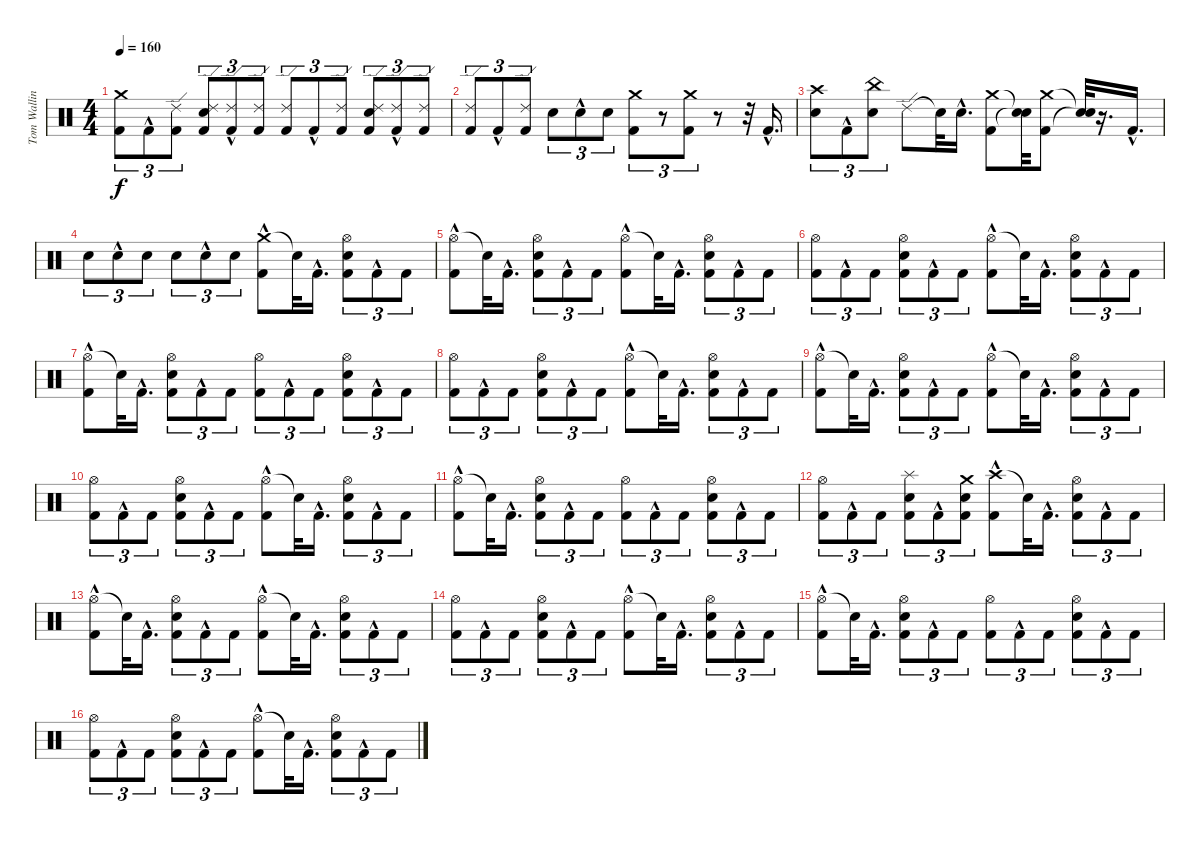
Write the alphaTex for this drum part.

\track ("Tom Walling (Drums)" "Tom Wallin") {instrument percussion}
\staff {score}
\articulation defaults
\ts (4 4)
\tempo 160
\clef neutral
\ks c
("Crash medium (hit)" "Kick (hit) 2").8{tu (3 2) dy f} "Kick (hit) 2"{hac}.8{tu (3 2)} ("Ride (edge) 2" "Kick (hit) 2").8{tu (3 2)} ("Ride (edge) 2" "Electric Snare (hit)" "Kick (hit) 2").8{tu (3 2)} ("Ride (edge) 2"{hac} "Kick (hit) 2"{hac}).8{tu (3 2)} ("Ride (edge) 2" "Kick (hit) 2").8{tu (3 2)} ("Ride (edge) 2" "Kick (hit) 2").8{tu (3 2)} "Kick (hit) 2"{hac}.8{tu (3 2)} ("Ride (edge) 2" "Kick (hit) 2").8{tu (3 2)} ("Ride (edge) 2" "Electric Snare (hit)" "Kick (hit) 2").8{tu (3 2)} ("Ride (edge) 2"{hac} "Kick (hit) 2"{hac}).8{tu (3 2)} ("Ride (edge) 2" "Kick (hit) 2").8{tu (3 2)} |
("Ride (edge) 2" "Kick (hit) 2").8{tu (3 2)} "Kick (hit) 2"{hac}.8{tu (3 2)} ("Ride (edge) 2" "Kick (hit) 2").8{tu (3 2)} "Electric Snare (hit)".8{tu (3 2)} "Electric Snare (hit)"{hac}.8{tu (3 2)} "Electric Snare (hit)".8{tu (3 2)} ("Crash medium (hit)" "Kick (hit) 2").8{tu (3 2)} r.8{tu (3 2)} ("Crash medium (hit)" "Kick (hit) 2").8{tu (3 2)} r.8 r.32 "Kick (hit) 2"{hac}.16{d} |
("Crash high (hit)" "Electric Snare (hit)").8{tu (3 2)} "Kick (hit) 2"{hac}.8{tu (3 2)} ("China (hit)" "Electric Snare (hit)").8{tu (3 2)} "Ride (edge) 2".8 "Snare (hit)"{t}.32 "Electric Snare (hit)"{hac}.16{d} ("Crash medium (hit)" "Kick (hit) 2").8 ("Snare (hit)"{t} "Snare (hit)"{t}).32 ("Crash medium (hit)" "Kick (hit) 2").8 ("Snare (hit)"{t} "Snare (hit)"{t}).32 r.16{d} "Kick (hit) 2"{hac}.16{d} |
"Electric Snare (hit)".8{tu (3 2)} "Electric Snare (hit)"{hac}.8{tu (3 2)} "Electric Snare (hit)".8{tu (3 2)} "Electric Snare (hit)".8{tu (3 2)} "Electric Snare (hit)"{hac}.8{tu (3 2)} "Electric Snare (hit)".8{tu (3 2)} ("Crash medium (hit)" "Kick (hit) 2"{hac}).8 "Snare (hit)"{t}.32 "Kick (hit) 2"{hac}.16{d} ("Hi-Hat (open)" "Electric Snare (hit)" "Kick (hit) 2").8{tu (3 2)} "Kick (hit) 2"{hac}.8{tu (3 2)} "Kick (hit) 2".8{tu (3 2)} |
("Hi-Hat (open)" "Kick (hit) 2"{hac}).8 "Snare (hit)"{t}.32 "Kick (hit) 2"{hac}.16{d} ("Hi-Hat (open)" "Electric Snare (hit)" "Kick (hit) 2").8{tu (3 2)} "Kick (hit) 2"{hac}.8{tu (3 2)} "Kick (hit) 2".8{tu (3 2)} ("Hi-Hat (open)" "Kick (hit) 2"{hac}).8 "Snare (hit)"{t}.32 "Kick (hit) 2"{hac}.16{d} ("Hi-Hat (open)" "Electric Snare (hit)" "Kick (hit) 2").8{tu (3 2)} "Kick (hit) 2"{hac}.8{tu (3 2)} "Kick (hit) 2".8{tu (3 2)} |
("Hi-Hat (open)" "Kick (hit) 2").8{tu (3 2)} "Kick (hit) 2"{hac}.8{tu (3 2)} "Kick (hit) 2".8{tu (3 2)} ("Hi-Hat (open)" "Electric Snare (hit)" "Kick (hit) 2").8{tu (3 2)} "Kick (hit) 2"{hac}.8{tu (3 2)} "Kick (hit) 2".8{tu (3 2)} ("Hi-Hat (open)" "Kick (hit) 2"{hac}).8 "Snare (hit)"{t}.32 "Kick (hit) 2"{hac}.16{d} ("Hi-Hat (open)" "Electric Snare (hit)" "Kick (hit) 2").8{tu (3 2)} "Kick (hit) 2"{hac}.8{tu (3 2)} "Kick (hit) 2".8{tu (3 2)} |
("Hi-Hat (open)" "Kick (hit) 2"{hac}).8 "Snare (hit)"{t}.32 "Kick (hit) 2"{hac}.16{d} ("Hi-Hat (open)" "Electric Snare (hit)" "Kick (hit) 2").8{tu (3 2)} "Kick (hit) 2"{hac}.8{tu (3 2)} "Kick (hit) 2".8{tu (3 2)} ("Hi-Hat (open)" "Kick (hit) 2").8{tu (3 2)} "Kick (hit) 2"{hac}.8{tu (3 2)} "Kick (hit) 2".8{tu (3 2)} ("Hi-Hat (open)" "Electric Snare (hit)" "Kick (hit) 2").8{tu (3 2)} "Kick (hit) 2"{hac}.8{tu (3 2)} "Kick (hit) 2".8{tu (3 2)} |
("Hi-Hat (open)" "Kick (hit) 2").8{tu (3 2)} "Kick (hit) 2"{hac}.8{tu (3 2)} "Kick (hit) 2".8{tu (3 2)} ("Hi-Hat (open)" "Electric Snare (hit)" "Kick (hit) 2").8{tu (3 2)} "Kick (hit) 2"{hac}.8{tu (3 2)} "Kick (hit) 2".8{tu (3 2)} ("Hi-Hat (open)" "Kick (hit) 2"{hac}).8 "Snare (hit)"{t}.32 "Kick (hit) 2"{hac}.16{d} ("Hi-Hat (open)" "Electric Snare (hit)" "Kick (hit) 2").8{tu (3 2)} "Kick (hit) 2"{hac}.8{tu (3 2)} "Kick (hit) 2".8{tu (3 2)} |
("Hi-Hat (open)" "Kick (hit) 2"{hac}).8 "Snare (hit)"{t}.32 "Kick (hit) 2"{hac}.16{d} ("Hi-Hat (open)" "Electric Snare (hit)" "Kick (hit) 2").8{tu (3 2)} "Kick (hit) 2"{hac}.8{tu (3 2)} "Kick (hit) 2".8{tu (3 2)} ("Hi-Hat (open)" "Kick (hit) 2"{hac}).8 "Snare (hit)"{t}.32 "Kick (hit) 2"{hac}.16{d} ("Hi-Hat (open)" "Electric Snare (hit)" "Kick (hit) 2").8{tu (3 2)} "Kick (hit) 2"{hac}.8{tu (3 2)} "Kick (hit) 2".8{tu (3 2)} |
("Hi-Hat (open)" "Kick (hit) 2").8{tu (3 2)} "Kick (hit) 2"{hac}.8{tu (3 2)} "Kick (hit) 2".8{tu (3 2)} ("Hi-Hat (open)" "Electric Snare (hit)" "Kick (hit) 2").8{tu (3 2)} "Kick (hit) 2"{hac}.8{tu (3 2)} "Kick (hit) 2".8{tu (3 2)} ("Hi-Hat (open)" "Kick (hit) 2"{hac}).8 "Snare (hit)"{t}.32 "Kick (hit) 2"{hac}.16{d} ("Hi-Hat (open)" "Electric Snare (hit)" "Kick (hit) 2").8{tu (3 2)} "Kick (hit) 2"{hac}.8{tu (3 2)} "Kick (hit) 2".8{tu (3 2)} |
("Hi-Hat (open)" "Kick (hit) 2"{hac}).8 "Snare (hit)"{t}.32 "Kick (hit) 2"{hac}.16{d} ("Hi-Hat (open)" "Electric Snare (hit)" "Kick (hit) 2").8{tu (3 2)} "Kick (hit) 2"{hac}.8{tu (3 2)} "Kick (hit) 2".8{tu (3 2)} ("Hi-Hat (open)" "Kick (hit) 2").8{tu (3 2)} "Kick (hit) 2"{hac}.8{tu (3 2)} "Kick (hit) 2".8{tu (3 2)} ("Hi-Hat (open)" "Electric Snare (hit)" "Kick (hit) 2").8{tu (3 2)} "Kick (hit) 2"{hac}.8{tu (3 2)} "Kick (hit) 2".8{tu (3 2)} |
("Hi-Hat (open)" "Kick (hit) 2").8{tu (3 2)} "Kick (hit) 2"{hac}.8{tu (3 2)} "Kick (hit) 2".8{tu (3 2)} ("Kick (hit) 2" "Splash (hit)" "Electric Snare (hit)").8{tu (3 2)} "Kick (hit) 2"{hac}.8{tu (3 2)} ("Kick (hit) 2" "Crash medium (hit)" "Electric Snare (hit)").8{tu (3 2)} ("Crash high (hit)" "Kick (hit) 2"{hac}).8 "Snare (hit)"{t}.32 "Kick (hit) 2"{hac}.16{d} ("Hi-Hat (open)" "Electric Snare (hit)" "Kick (hit) 2").8{tu (3 2)} "Kick (hit) 2"{hac}.8{tu (3 2)} "Kick (hit) 2".8{tu (3 2)} |
("Hi-Hat (open)" "Kick (hit) 2"{hac}).8 "Snare (hit)"{t}.32 "Kick (hit) 2"{hac}.16{d} ("Hi-Hat (open)" "Electric Snare (hit)" "Kick (hit) 2").8{tu (3 2)} "Kick (hit) 2"{hac}.8{tu (3 2)} "Kick (hit) 2".8{tu (3 2)} ("Hi-Hat (open)" "Kick (hit) 2"{hac}).8 "Snare (hit)"{t}.32 "Kick (hit) 2"{hac}.16{d} ("Hi-Hat (open)" "Electric Snare (hit)" "Kick (hit) 2").8{tu (3 2)} "Kick (hit) 2"{hac}.8{tu (3 2)} "Kick (hit) 2".8{tu (3 2)} |
("Hi-Hat (open)" "Kick (hit) 2").8{tu (3 2)} "Kick (hit) 2"{hac}.8{tu (3 2)} "Kick (hit) 2".8{tu (3 2)} ("Hi-Hat (open)" "Electric Snare (hit)" "Kick (hit) 2").8{tu (3 2)} "Kick (hit) 2"{hac}.8{tu (3 2)} "Kick (hit) 2".8{tu (3 2)} ("Hi-Hat (open)" "Kick (hit) 2"{hac}).8 "Snare (hit)"{t}.32 "Kick (hit) 2"{hac}.16{d} ("Hi-Hat (open)" "Electric Snare (hit)" "Kick (hit) 2").8{tu (3 2)} "Kick (hit) 2"{hac}.8{tu (3 2)} "Kick (hit) 2".8{tu (3 2)} |
("Hi-Hat (open)" "Kick (hit) 2"{hac}).8 "Snare (hit)"{t}.32 "Kick (hit) 2"{hac}.16{d} ("Hi-Hat (open)" "Electric Snare (hit)" "Kick (hit) 2").8{tu (3 2)} "Kick (hit) 2"{hac}.8{tu (3 2)} "Kick (hit) 2".8{tu (3 2)} ("Hi-Hat (open)" "Kick (hit) 2").8{tu (3 2)} "Kick (hit) 2"{hac}.8{tu (3 2)} "Kick (hit) 2".8{tu (3 2)} ("Hi-Hat (open)" "Electric Snare (hit)" "Kick (hit) 2").8{tu (3 2)} "Kick (hit) 2"{hac}.8{tu (3 2)} "Kick (hit) 2".8{tu (3 2)} |
("Hi-Hat (open)" "Kick (hit) 2").8{tu (3 2)} "Kick (hit) 2"{hac}.8{tu (3 2)} "Kick (hit) 2".8{tu (3 2)} ("Hi-Hat (open)" "Electric Snare (hit)" "Kick (hit) 2").8{tu (3 2)} "Kick (hit) 2"{hac}.8{tu (3 2)} "Kick (hit) 2".8{tu (3 2)} ("Hi-Hat (open)" "Kick (hit) 2"{hac}).8 "Snare (hit)"{t}.32 "Kick (hit) 2"{hac}.16{d} ("Hi-Hat (open)" "Electric Snare (hit)" "Kick (hit) 2").8{tu (3 2)} "Kick (hit) 2"{hac}.8{tu (3 2)} "Kick (hit) 2".8{tu (3 2)}
